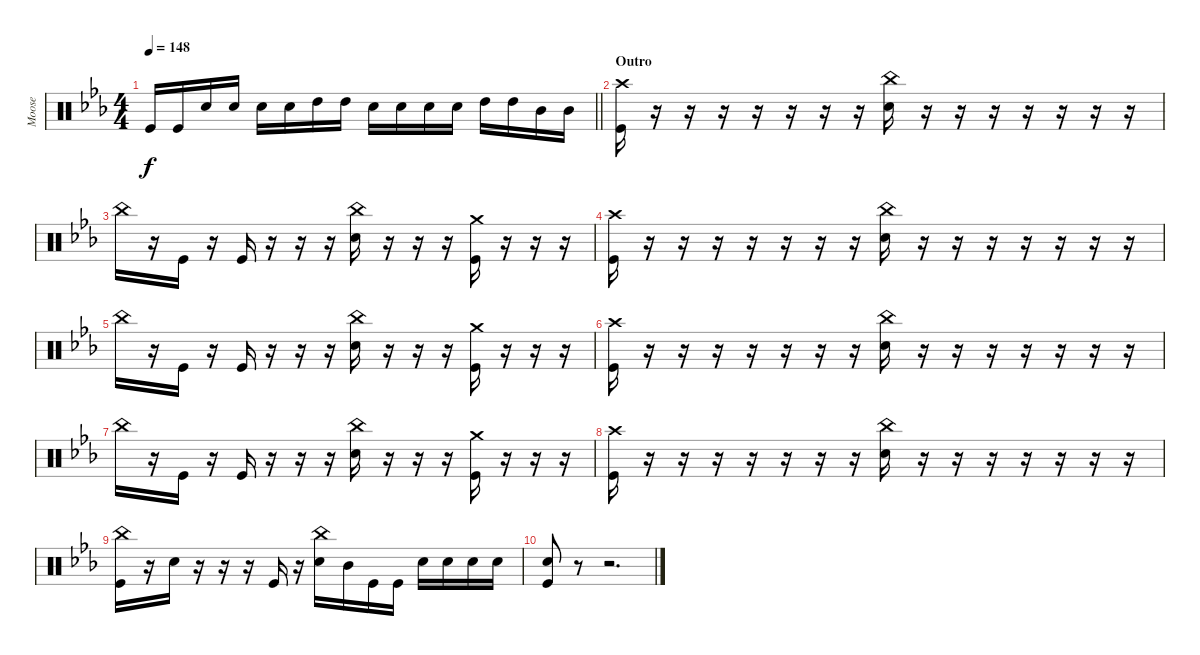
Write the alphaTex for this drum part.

\track ("Moose" "Moose") {instrument percussion}
\staff {score}
\articulation defaults
\ts (4 4)
\tempo 148
\clef neutral
\barLineRight lightlight
\ks eb "Kick (hit)".16{dy f} "Kick (hit)".16 "Snare (hit) 2".16 "Snare (hit) 2".16 "Snare (hit) 2".16 "Snare (hit) 2".16 "High Tom (hit)".16 "High Tom (hit)".16 "Snare (hit) 2".16 "Snare (hit) 2".16 "Snare (hit) 2".16 "Snare (hit) 2".16 "High Tom (hit)".16 "High Tom (hit)".16 "Mid Tom (hit)".16 "Mid Tom (hit)".16
|
\section ("" "Outro")
("Crash high (hit)" "Kick (hit)").16 r.16 r.16 r.16 r.16 r.16 r.16 r.16 ("China (hit)" "Snare (hit) 2").16 r.16 r.16 r.16 r.16 r.16 r.16 r.16 |
"China (hit)".16 r.16 "Kick (hit)".16 r.16 "Kick (hit)".16 r.16 r.16 r.16 ("China (hit)" "Snare (hit) 2").16 r.16 r.16 r.16 ("Crash medium (hit)" "Kick (hit)").16 r.16 r.16 r.16 |
("Crash high (hit)" "Kick (hit)").16 r.16 r.16 r.16 r.16 r.16 r.16 r.16 ("China (hit)" "Snare (hit) 2").16 r.16 r.16 r.16 r.16 r.16 r.16 r.16 |
"China (hit)".16 r.16 "Kick (hit)".16 r.16 "Kick (hit)".16 r.16 r.16 r.16 ("China (hit)" "Snare (hit) 2").16 r.16 r.16 r.16 ("Crash medium (hit)" "Kick (hit)").16 r.16 r.16 r.16 |
("Crash high (hit)" "Kick (hit)").16 r.16 r.16 r.16 r.16 r.16 r.16 r.16 ("China (hit)" "Snare (hit) 2").16 r.16 r.16 r.16 r.16 r.16 r.16 r.16 |
"China (hit)".16 r.16 "Kick (hit)".16 r.16 "Kick (hit)".16 r.16 r.16 r.16 ("China (hit)" "Snare (hit) 2").16 r.16 r.16 r.16 ("Crash medium (hit)" "Kick (hit)").16 r.16 r.16 r.16 |
("Crash high (hit)" "Kick (hit)").16 r.16 r.16 r.16 r.16 r.16 r.16 r.16 ("China (hit)" "Snare (hit) 2").16 r.16 r.16 r.16 r.16 r.16 r.16 r.16 |
("China (hit)" "Kick (hit)").16 r.16 "Snare (hit) 2".16 r.16 r.16 r.16 "Kick (hit)".16 r.16 ("China (hit)" "Snare (hit) 2").16 "Mid Tom (hit)".16 "Kick (hit)".16 "Kick (hit)".16 "Snare (hit) 2".16 "Snare (hit) 2".16 "Snare (hit) 2".16 "Snare (hit) 2".16 |
("Snare (hit) 2" "Kick (hit)").8 r.8 r.2{d}
